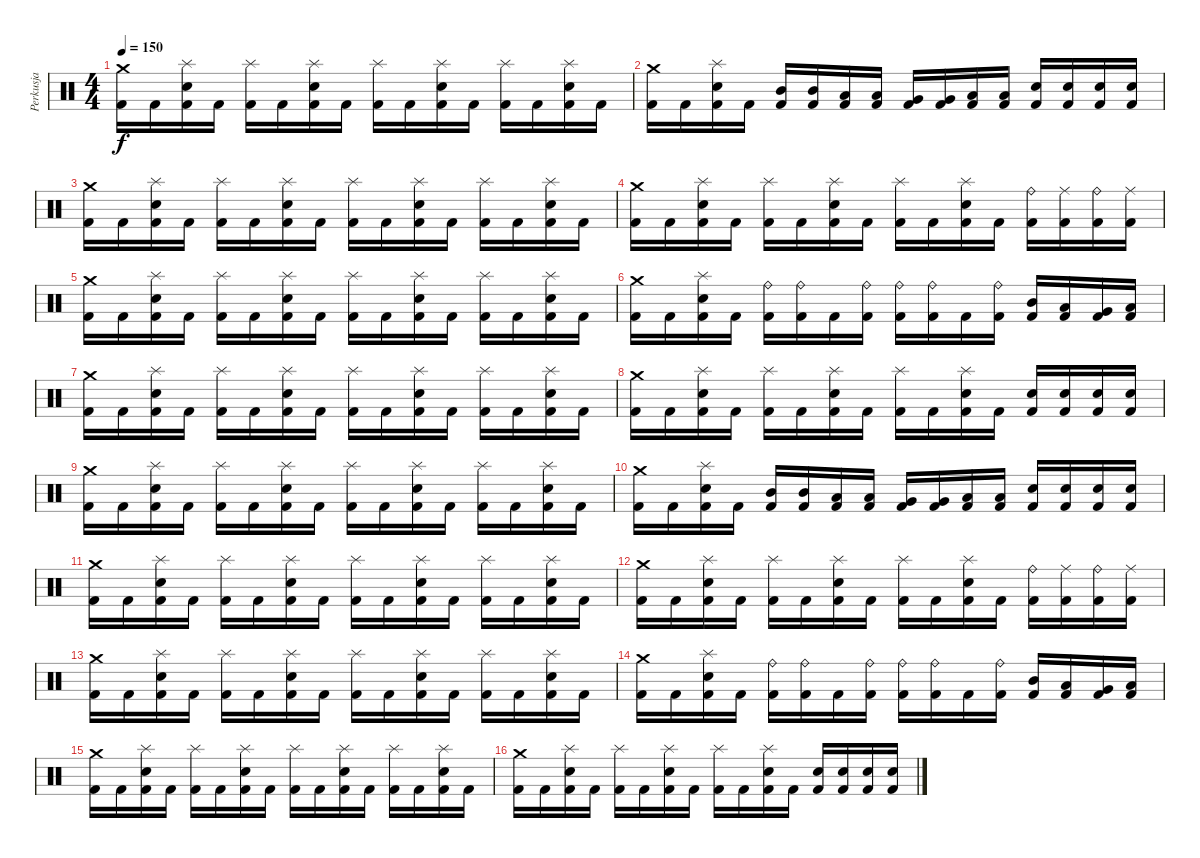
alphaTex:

\track ("Perkusja" "Perkusja") {instrument percussion}
\staff {score}
\articulation defaults
\ts (4 4)
\tempo 150
\clef neutral
\ks c
("Crash medium (hit)" "Kick (hit) 2").16{dy f} "Kick (hit) 2".16 ("Splash (hit)" "Electric Snare (hit)" "Kick (hit) 2").16 "Kick (hit) 2".16 ("Splash (hit)" "Kick (hit) 2").16 "Kick (hit) 2".16 ("Splash (hit)" "Electric Snare (hit)" "Kick (hit) 2").16 "Kick (hit) 2".16 ("Splash (hit)" "Kick (hit) 2").16 "Kick (hit) 2".16 ("Splash (hit)" "Electric Snare (hit)" "Kick (hit) 2").16 "Kick (hit) 2".16 ("Splash (hit)" "Kick (hit) 2").16 "Kick (hit) 2".16 ("Splash (hit)" "Electric Snare (hit)" "Kick (hit) 2").16 "Kick (hit) 2".16 |
("Crash medium (hit)" "Kick (hit) 2").16 "Kick (hit) 2".16 ("Splash (hit)" "Electric Snare (hit)" "Kick (hit) 2").16 "Kick (hit) 2".16 ("Mid Tom (hit)" "Kick (hit) 2").16 ("Mid Tom (hit)" "Kick (hit) 2").16 ("Low Tom (hit)" "Kick (hit) 2").16 ("Low Tom (hit)" "Kick (hit) 2").16 ("Very Low Tom (hit)" "Kick (hit) 2").16 ("Very Low Tom (hit)" "Kick (hit) 2").16 ("Low Floor Tom (hit)" "Kick (hit) 2").16 ("Low Floor Tom (hit)" "Kick (hit) 2").16 ("Electric Snare (hit)" "Kick (hit) 2").16 ("Electric Snare (hit)" "Kick (hit) 2").16 ("Electric Snare (hit)" "Kick (hit) 2").16 ("Electric Snare (hit)" "Kick (hit) 2").16 |
("Crash medium (hit)" "Kick (hit) 2").16 "Kick (hit) 2".16 ("Splash (hit)" "Electric Snare (hit)" "Kick (hit) 2").16 "Kick (hit) 2".16 ("Splash (hit)" "Kick (hit) 2").16 "Kick (hit) 2".16 ("Splash (hit)" "Electric Snare (hit)" "Kick (hit) 2").16 "Kick (hit) 2".16 ("Splash (hit)" "Kick (hit) 2").16 "Kick (hit) 2".16 ("Splash (hit)" "Electric Snare (hit)" "Kick (hit) 2").16 "Kick (hit) 2".16 ("Splash (hit)" "Kick (hit) 2").16 "Kick (hit) 2".16 ("Splash (hit)" "Electric Snare (hit)" "Kick (hit) 2").16 "Kick (hit) 2".16 |
("Crash medium (hit)" "Kick (hit) 2").16 "Kick (hit) 2".16 ("Splash (hit)" "Electric Snare (hit)" "Kick (hit) 2").16 "Kick (hit) 2".16 ("Splash (hit)" "Kick (hit) 2").16 "Kick (hit) 2".16 ("Splash (hit)" "Electric Snare (hit)" "Kick (hit) 2").16 "Kick (hit) 2".16 ("Splash (hit)" "Kick (hit) 2").16 "Kick (hit) 2".16 ("Splash (hit)" "Electric Snare (hit)" "Kick (hit) 2").16 "Kick (hit) 2".16 ("Ride (bell)" "Kick (hit) 2").16 ("Ride (middle)" "Kick (hit) 2").16 ("Ride (bell)" "Kick (hit) 2").16 ("Ride (middle)" "Kick (hit) 2").16 |
("Crash medium (hit)" "Kick (hit) 2").16 "Kick (hit) 2".16 ("Splash (hit)" "Electric Snare (hit)" "Kick (hit) 2").16 "Kick (hit) 2".16 ("Splash (hit)" "Kick (hit) 2").16 "Kick (hit) 2".16 ("Splash (hit)" "Electric Snare (hit)" "Kick (hit) 2").16 "Kick (hit) 2".16 ("Splash (hit)" "Kick (hit) 2").16 "Kick (hit) 2".16 ("Splash (hit)" "Electric Snare (hit)" "Kick (hit) 2").16 "Kick (hit) 2".16 ("Splash (hit)" "Kick (hit) 2").16 "Kick (hit) 2".16 ("Splash (hit)" "Electric Snare (hit)" "Kick (hit) 2").16 "Kick (hit) 2".16 |
("Crash medium (hit)" "Kick (hit) 2").16 "Kick (hit) 2".16 ("Splash (hit)" "Electric Snare (hit)" "Kick (hit) 2").16 "Kick (hit) 2".16 ("Ride (bell)" "Kick (hit) 2").16 ("Ride (bell)" "Kick (hit) 2").16 "Kick (hit) 2".16 ("Ride (bell)" "Kick (hit) 2").16 ("Ride (bell)" "Kick (hit) 2").16 ("Ride (bell)" "Kick (hit) 2").16 "Kick (hit) 2".16 ("Ride (bell)" "Kick (hit) 2").16 ("Mid Tom (hit)" "Kick (hit) 2").16 ("Low Tom (hit)" "Kick (hit) 2").16 ("Very Low Tom (hit)" "Kick (hit) 2").16 ("Low Floor Tom (hit)" "Kick (hit) 2").16 |
("Crash medium (hit)" "Kick (hit) 2").16 "Kick (hit) 2".16 ("Splash (hit)" "Electric Snare (hit)" "Kick (hit) 2").16 "Kick (hit) 2".16 ("Splash (hit)" "Kick (hit) 2").16 "Kick (hit) 2".16 ("Splash (hit)" "Electric Snare (hit)" "Kick (hit) 2").16 "Kick (hit) 2".16 ("Splash (hit)" "Kick (hit) 2").16 "Kick (hit) 2".16 ("Splash (hit)" "Electric Snare (hit)" "Kick (hit) 2").16 "Kick (hit) 2".16 ("Splash (hit)" "Kick (hit) 2").16 "Kick (hit) 2".16 ("Splash (hit)" "Electric Snare (hit)" "Kick (hit) 2").16 "Kick (hit) 2".16 |
("Crash medium (hit)" "Kick (hit) 2").16 "Kick (hit) 2".16 ("Splash (hit)" "Electric Snare (hit)" "Kick (hit) 2").16 "Kick (hit) 2".16 ("Splash (hit)" "Kick (hit) 2").16 "Kick (hit) 2".16 ("Splash (hit)" "Electric Snare (hit)" "Kick (hit) 2").16 "Kick (hit) 2".16 ("Splash (hit)" "Kick (hit) 2").16 "Kick (hit) 2".16 ("Splash (hit)" "Electric Snare (hit)" "Kick (hit) 2").16 "Kick (hit) 2".16 ("Electric Snare (hit)" "Kick (hit) 2").16 ("Electric Snare (hit)" "Kick (hit) 2").16 ("Electric Snare (hit)" "Kick (hit) 2").16 ("Electric Snare (hit)" "Kick (hit) 2").16 |
("Crash medium (hit)" "Kick (hit) 2").16 "Kick (hit) 2".16 ("Splash (hit)" "Electric Snare (hit)" "Kick (hit) 2").16 "Kick (hit) 2".16 ("Splash (hit)" "Kick (hit) 2").16 "Kick (hit) 2".16 ("Splash (hit)" "Electric Snare (hit)" "Kick (hit) 2").16 "Kick (hit) 2".16 ("Splash (hit)" "Kick (hit) 2").16 "Kick (hit) 2".16 ("Splash (hit)" "Electric Snare (hit)" "Kick (hit) 2").16 "Kick (hit) 2".16 ("Splash (hit)" "Kick (hit) 2").16 "Kick (hit) 2".16 ("Splash (hit)" "Electric Snare (hit)" "Kick (hit) 2").16 "Kick (hit) 2".16 |
("Crash medium (hit)" "Kick (hit) 2").16 "Kick (hit) 2".16 ("Splash (hit)" "Electric Snare (hit)" "Kick (hit) 2").16 "Kick (hit) 2".16 ("Mid Tom (hit)" "Kick (hit) 2").16 ("Mid Tom (hit)" "Kick (hit) 2").16 ("Low Tom (hit)" "Kick (hit) 2").16 ("Low Tom (hit)" "Kick (hit) 2").16 ("Very Low Tom (hit)" "Kick (hit) 2").16 ("Very Low Tom (hit)" "Kick (hit) 2").16 ("Low Floor Tom (hit)" "Kick (hit) 2").16 ("Low Floor Tom (hit)" "Kick (hit) 2").16 ("Electric Snare (hit)" "Kick (hit) 2").16 ("Electric Snare (hit)" "Kick (hit) 2").16 ("Electric Snare (hit)" "Kick (hit) 2").16 ("Electric Snare (hit)" "Kick (hit) 2").16 |
("Crash medium (hit)" "Kick (hit) 2").16 "Kick (hit) 2".16 ("Splash (hit)" "Electric Snare (hit)" "Kick (hit) 2").16 "Kick (hit) 2".16 ("Splash (hit)" "Kick (hit) 2").16 "Kick (hit) 2".16 ("Splash (hit)" "Electric Snare (hit)" "Kick (hit) 2").16 "Kick (hit) 2".16 ("Splash (hit)" "Kick (hit) 2").16 "Kick (hit) 2".16 ("Splash (hit)" "Electric Snare (hit)" "Kick (hit) 2").16 "Kick (hit) 2".16 ("Splash (hit)" "Kick (hit) 2").16 "Kick (hit) 2".16 ("Splash (hit)" "Electric Snare (hit)" "Kick (hit) 2").16 "Kick (hit) 2".16 |
("Crash medium (hit)" "Kick (hit) 2").16 "Kick (hit) 2".16 ("Splash (hit)" "Electric Snare (hit)" "Kick (hit) 2").16 "Kick (hit) 2".16 ("Splash (hit)" "Kick (hit) 2").16 "Kick (hit) 2".16 ("Splash (hit)" "Electric Snare (hit)" "Kick (hit) 2").16 "Kick (hit) 2".16 ("Splash (hit)" "Kick (hit) 2").16 "Kick (hit) 2".16 ("Splash (hit)" "Electric Snare (hit)" "Kick (hit) 2").16 "Kick (hit) 2".16 ("Ride (bell)" "Kick (hit) 2").16 ("Ride (middle)" "Kick (hit) 2").16 ("Ride (bell)" "Kick (hit) 2").16 ("Ride (middle)" "Kick (hit) 2").16 |
("Crash medium (hit)" "Kick (hit) 2").16 "Kick (hit) 2".16 ("Splash (hit)" "Electric Snare (hit)" "Kick (hit) 2").16 "Kick (hit) 2".16 ("Splash (hit)" "Kick (hit) 2").16 "Kick (hit) 2".16 ("Splash (hit)" "Electric Snare (hit)" "Kick (hit) 2").16 "Kick (hit) 2".16 ("Splash (hit)" "Kick (hit) 2").16 "Kick (hit) 2".16 ("Splash (hit)" "Electric Snare (hit)" "Kick (hit) 2").16 "Kick (hit) 2".16 ("Splash (hit)" "Kick (hit) 2").16 "Kick (hit) 2".16 ("Splash (hit)" "Electric Snare (hit)" "Kick (hit) 2").16 "Kick (hit) 2".16 |
("Crash medium (hit)" "Kick (hit) 2").16 "Kick (hit) 2".16 ("Splash (hit)" "Electric Snare (hit)" "Kick (hit) 2").16 "Kick (hit) 2".16 ("Ride (bell)" "Kick (hit) 2").16 ("Ride (bell)" "Kick (hit) 2").16 "Kick (hit) 2".16 ("Ride (bell)" "Kick (hit) 2").16 ("Ride (bell)" "Kick (hit) 2").16 ("Ride (bell)" "Kick (hit) 2").16 "Kick (hit) 2".16 ("Ride (bell)" "Kick (hit) 2").16 ("Mid Tom (hit)" "Kick (hit) 2").16 ("Low Tom (hit)" "Kick (hit) 2").16 ("Very Low Tom (hit)" "Kick (hit) 2").16 ("Low Floor Tom (hit)" "Kick (hit) 2").16 |
("Crash medium (hit)" "Kick (hit) 2").16 "Kick (hit) 2".16 ("Splash (hit)" "Electric Snare (hit)" "Kick (hit) 2").16 "Kick (hit) 2".16 ("Splash (hit)" "Kick (hit) 2").16 "Kick (hit) 2".16 ("Splash (hit)" "Electric Snare (hit)" "Kick (hit) 2").16 "Kick (hit) 2".16 ("Splash (hit)" "Kick (hit) 2").16 "Kick (hit) 2".16 ("Splash (hit)" "Electric Snare (hit)" "Kick (hit) 2").16 "Kick (hit) 2".16 ("Splash (hit)" "Kick (hit) 2").16 "Kick (hit) 2".16 ("Splash (hit)" "Electric Snare (hit)" "Kick (hit) 2").16 "Kick (hit) 2".16 |
("Crash medium (hit)" "Kick (hit) 2").16 "Kick (hit) 2".16 ("Splash (hit)" "Electric Snare (hit)" "Kick (hit) 2").16 "Kick (hit) 2".16 ("Splash (hit)" "Kick (hit) 2").16 "Kick (hit) 2".16 ("Splash (hit)" "Electric Snare (hit)" "Kick (hit) 2").16 "Kick (hit) 2".16 ("Splash (hit)" "Kick (hit) 2").16 "Kick (hit) 2".16 ("Splash (hit)" "Electric Snare (hit)" "Kick (hit) 2").16 "Kick (hit) 2".16 ("Electric Snare (hit)" "Kick (hit) 2").16 ("Electric Snare (hit)" "Kick (hit) 2").16 ("Electric Snare (hit)" "Kick (hit) 2").16 ("Electric Snare (hit)" "Kick (hit) 2").16
